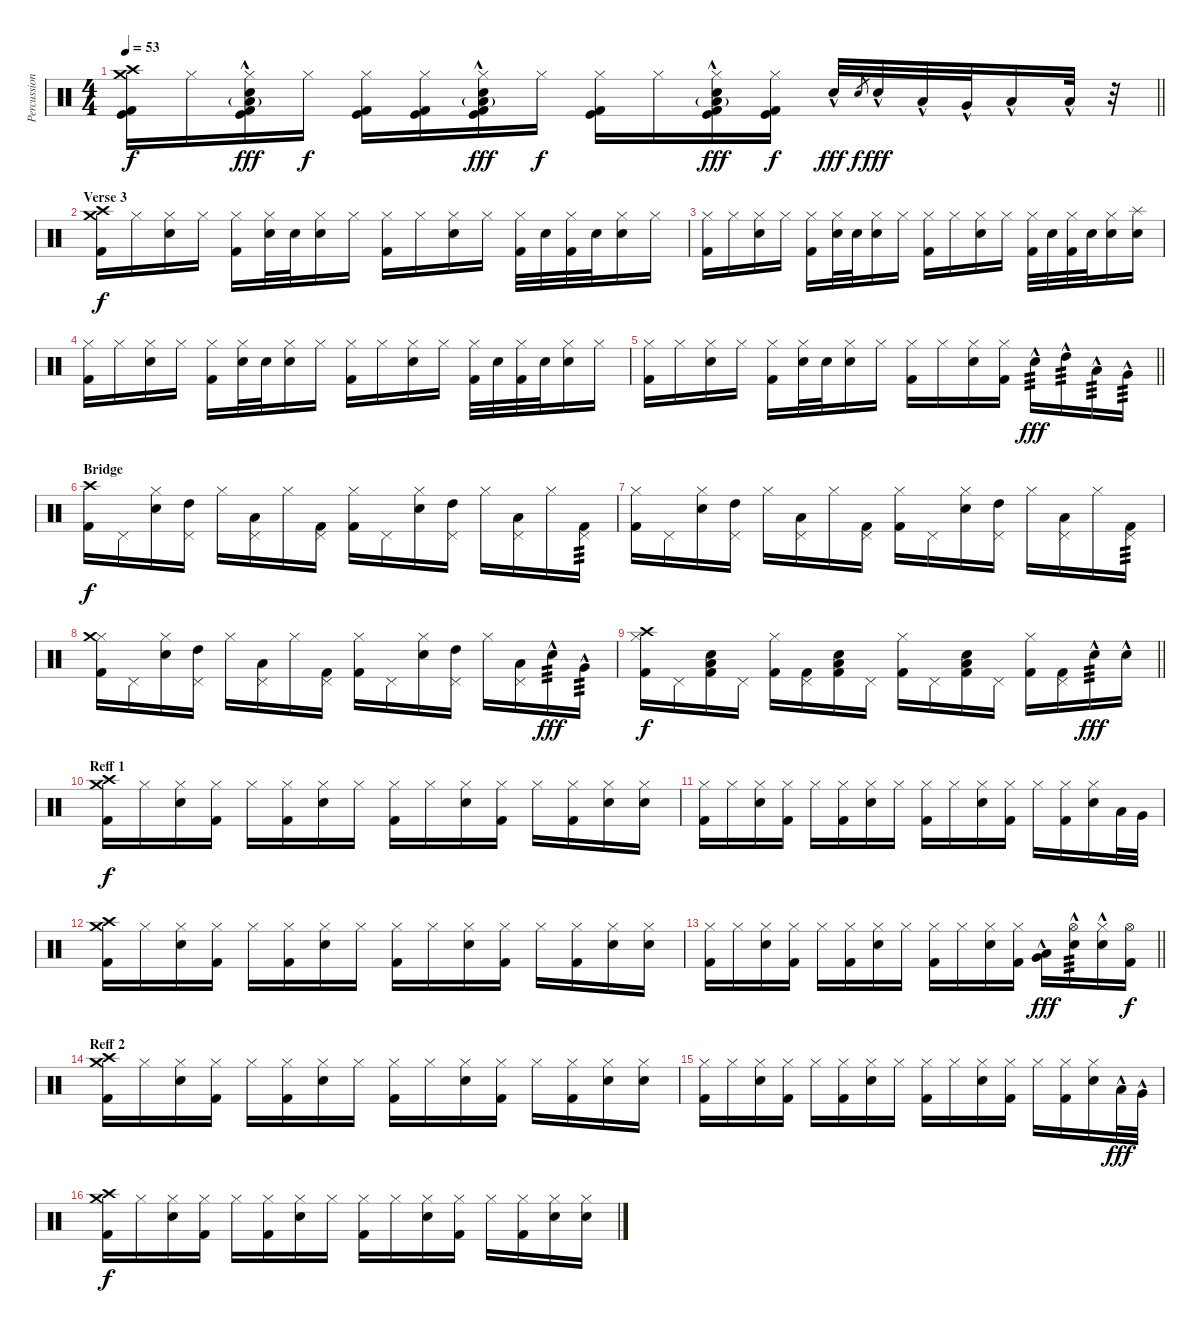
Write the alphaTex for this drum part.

\track ("Percussion" "Percussion") {instrument percussion}
\staff {score}
\articulation defaults
\ts (4 4)
\tempo 53
\clef neutral
\barLineRight lightlight
\ks c
("Crash medium (hit)" "Crash high (hit)" "Kick (hit)" "Kick (hit) 2").16{dy f} "Hi-Hat (closed)".16 ("Hi-Hat (closed)" "Electric Snare (hit)"{hac} "Low Floor Tom (hit)"{g} "Kick (hit)" "Kick (hit) 2"{hac}).16{dy fff} "Hi-Hat (closed)".16{dy f} ("Hi-Hat (closed)" "Kick (hit)" "Kick (hit) 2").16 ("Hi-Hat (closed)" "Kick (hit)" "Kick (hit) 2").16 ("Hi-Hat (closed)" "Electric Snare (hit)"{hac} "Low Floor Tom (hit)"{g} "Kick (hit)" "Kick (hit) 2"{hac}).16{dy fff} "Hi-Hat (closed)".16{dy f} ("Hi-Hat (closed)" "Kick (hit)" "Kick (hit) 2").16 "Hi-Hat (closed)".16 ("Hi-Hat (closed)" "Electric Snare (hit)"{hac} "Low Floor Tom (hit)"{g} "Kick (hit)" "Kick (hit) 2"{hac}).16{dy fff} ("Hi-Hat (closed)" "Kick (hit)" "Kick (hit) 2").16{dy f} "Electric Snare (hit)"{hac}.32{dy fff} "Electric Snare (hit)".8{gr dy f} "Electric Snare (hit)"{hac}.32{bd 60 dy fff} "Low Tom (hit)"{hac}.32 "Very Low Tom (hit)"{hac}.32 "Low Floor Tom (hit)"{hac}.16 "Low Floor Tom (hit)"{hac}.32 r.32 |
\section ("" "Verse 3")
("Crash medium (hit)" "Crash high (hit)" "Kick (hit) 2").16{dy f} "Hi-Hat (closed)".16 ("Hi-Hat (closed)" "Electric Snare (hit)").16 "Hi-Hat (closed)".16 ("Hi-Hat (closed)" "Kick (hit) 2").16 ("Hi-Hat (closed)" "Electric Snare (hit)").32 "Electric Snare (hit)".32 ("Hi-Hat (closed)" "Electric Snare (hit)").16 "Hi-Hat (closed)".16 ("Hi-Hat (closed)" "Kick (hit) 2").16 "Hi-Hat (closed)".16 ("Hi-Hat (closed)" "Electric Snare (hit)").16 "Hi-Hat (closed)".16 ("Hi-Hat (closed)" "Kick (hit) 2").32 "Electric Snare (hit)".32 ("Hi-Hat (closed)" "Kick (hit) 2").32 "Electric Snare (hit)".32 ("Hi-Hat (closed)" "Electric Snare (hit)").16 "Hi-Hat (closed)".16 |
("Hi-Hat (closed)" "Kick (hit) 2").16 "Hi-Hat (closed)".16 ("Hi-Hat (closed)" "Electric Snare (hit)").16 "Hi-Hat (closed)".16 ("Hi-Hat (closed)" "Kick (hit) 2").16 ("Hi-Hat (closed)" "Electric Snare (hit)").32 "Electric Snare (hit)".32 ("Hi-Hat (closed)" "Electric Snare (hit)").16 "Hi-Hat (closed)".16 ("Hi-Hat (closed)" "Kick (hit) 2").16 "Hi-Hat (closed)".16 ("Hi-Hat (closed)" "Electric Snare (hit)").16 "Hi-Hat (closed)".16 ("Hi-Hat (closed)" "Kick (hit) 2").32 "Electric Snare (hit)".32 ("Hi-Hat (closed)" "Kick (hit) 2").32 "Electric Snare (hit)".32 ("Hi-Hat (closed)" "Electric Snare (hit)").16 ("Splash (hit)" "Electric Snare (hit)").16 |
("Hi-Hat (closed)" "Kick (hit) 2").16 "Hi-Hat (closed)".16 ("Hi-Hat (closed)" "Electric Snare (hit)").16 "Hi-Hat (closed)".16 ("Hi-Hat (closed)" "Kick (hit) 2").16 ("Hi-Hat (closed)" "Electric Snare (hit)").32 "Electric Snare (hit)".32 ("Hi-Hat (closed)" "Electric Snare (hit)").16 "Hi-Hat (closed)".16 ("Hi-Hat (closed)" "Kick (hit) 2").16 "Hi-Hat (closed)".16 ("Hi-Hat (closed)" "Electric Snare (hit)").16 "Hi-Hat (closed)".16 ("Hi-Hat (closed)" "Kick (hit) 2").32 "Electric Snare (hit)".32 ("Hi-Hat (closed)" "Kick (hit) 2").32 "Electric Snare (hit)".32 ("Hi-Hat (closed)" "Electric Snare (hit)").16 "Hi-Hat (closed)".16 |
\barLineRight lightlight
("Hi-Hat (closed)" "Kick (hit) 2").16 "Hi-Hat (closed)".16 ("Hi-Hat (closed)" "Electric Snare (hit)").16 "Hi-Hat (closed)".16 ("Hi-Hat (closed)" "Kick (hit) 2").16 ("Hi-Hat (closed)" "Electric Snare (hit)").32 "Electric Snare (hit)".32 ("Hi-Hat (closed)" "Electric Snare (hit)").16 "Hi-Hat (closed)".16 ("Hi-Hat (closed)" "Kick (hit) 2").16 "Hi-Hat (closed)".16 ("Hi-Hat (closed)" "Electric Snare (hit)").16 ("Hi-Hat (closed)" "Kick (hit) 2").16 "Electric Snare (hit)"{hac}.16{tp 3 dy fff} "High Tom (hit)"{hac}.16{tp 3} "Low Tom (hit)"{hac}.16{tp 3} "Very Low Tom (hit)"{hac}.16{tp 3} |
\section ("" "Bridge")
("Crash high (hit)" "Kick (hit) 2").16{dy f} "Pedal Hi-Hat (hit)".16 ("Hi-Hat (closed)" "Electric Snare (hit)").16 ("Pedal Hi-Hat (hit)" "High Tom (hit)").16 "Hi-Hat (closed)".16 ("Pedal Hi-Hat (hit)" "Low Tom (hit)").16 "Hi-Hat (closed)".16 ("Pedal Hi-Hat (hit)" "Kick (hit) 2").16 ("Hi-Hat (closed)" "Kick (hit) 2").16 "Pedal Hi-Hat (hit)".16 ("Hi-Hat (closed)" "Electric Snare (hit)").16 ("Pedal Hi-Hat (hit)" "High Tom (hit)").16 "Hi-Hat (closed)".16 ("Pedal Hi-Hat (hit)" "Low Tom (hit)").16 "Hi-Hat (closed)".16 ("Pedal Hi-Hat (hit)" "Kick (hit) 2").16{tp 3} |
("Hi-Hat (closed)" "Kick (hit) 2").16 "Pedal Hi-Hat (hit)".16 ("Hi-Hat (closed)" "Electric Snare (hit)").16 ("Pedal Hi-Hat (hit)" "High Tom (hit)").16 "Hi-Hat (closed)".16 ("Pedal Hi-Hat (hit)" "Low Tom (hit)").16 "Hi-Hat (closed)".16 ("Pedal Hi-Hat (hit)" "Kick (hit) 2").16 ("Hi-Hat (closed)" "Kick (hit) 2").16 "Pedal Hi-Hat (hit)".16 ("Hi-Hat (closed)" "Electric Snare (hit)").16 ("Pedal Hi-Hat (hit)" "High Tom (hit)").16 "Hi-Hat (closed)".16 ("Pedal Hi-Hat (hit)" "Low Tom (hit)").16 "Hi-Hat (closed)".16 ("Pedal Hi-Hat (hit)" "Kick (hit) 2").16{tp 3} |
("Hi-Hat (closed)" "Crash medium (hit)" "Kick (hit) 2").16 "Pedal Hi-Hat (hit)".16 ("Hi-Hat (closed)" "Electric Snare (hit)").16 ("Pedal Hi-Hat (hit)" "High Tom (hit)").16 "Hi-Hat (closed)".16 ("Pedal Hi-Hat (hit)" "Low Tom (hit)").16 "Hi-Hat (closed)".16 ("Pedal Hi-Hat (hit)" "Kick (hit) 2").16 ("Hi-Hat (closed)" "Kick (hit) 2").16 "Pedal Hi-Hat (hit)".16 ("Hi-Hat (closed)" "Electric Snare (hit)").16 ("Pedal Hi-Hat (hit)" "High Tom (hit)").16 "Hi-Hat (closed)".16 ("Pedal Hi-Hat (hit)" "Low Tom (hit)").16 "Electric Snare (hit)"{hac}.16{tp 3 dy fff} "Very Low Tom (hit)"{hac}.16{tp 3} |
\barLineRight lightlight
("Hi-Hat (closed)" "Crash high (hit)" "Kick (hit) 2").16{dy f} "Pedal Hi-Hat (hit)".16 ("Electric Snare (hit)" "Low Floor Tom (hit)" "Kick (hit) 2").16 "Pedal Hi-Hat (hit)".16 ("Hi-Hat (closed)" "Kick (hit) 2").16 ("Pedal Hi-Hat (hit)" "Kick (hit) 2").16 ("Electric Snare (hit)" "Low Floor Tom (hit)" "Kick (hit) 2").16 "Pedal Hi-Hat (hit)".16 ("Hi-Hat (closed)" "Kick (hit) 2").16 "Pedal Hi-Hat (hit)".16 ("Electric Snare (hit)" "Low Floor Tom (hit)" "Kick (hit) 2").16 "Pedal Hi-Hat (hit)".16 ("Hi-Hat (closed)" "Kick (hit) 2").16 ("Pedal Hi-Hat (hit)" "Kick (hit) 2").16 "Electric Snare (hit)"{hac}.16{tp 3 dy fff} "Electric Snare (hit)"{hac}.16 |
\section ("" "Reff 1")
("Crash high (hit)" "Crash medium (hit)" "Kick (hit) 2").16{dy f} "Hi-Hat (closed)".16 ("Hi-Hat (closed)" "Electric Snare (hit)").16 ("Hi-Hat (closed)" "Kick (hit) 2").16 "Hi-Hat (closed)".16 ("Hi-Hat (closed)" "Kick (hit) 2").16 ("Hi-Hat (closed)" "Electric Snare (hit)").16 "Hi-Hat (closed)".16 ("Hi-Hat (closed)" "Kick (hit) 2").16 "Hi-Hat (closed)".16 ("Hi-Hat (closed)" "Electric Snare (hit)").16 ("Hi-Hat (closed)" "Kick (hit) 2").16 "Hi-Hat (closed)".16 ("Hi-Hat (closed)" "Kick (hit) 2").16 ("Hi-Hat (closed)" "Electric Snare (hit)").16 ("Hi-Hat (closed)" "Electric Snare (hit)").16 |
("Hi-Hat (closed)" "Kick (hit) 2").16 "Hi-Hat (closed)".16 ("Hi-Hat (closed)" "Electric Snare (hit)").16 ("Hi-Hat (closed)" "Kick (hit) 2").16 "Hi-Hat (closed)".16 ("Hi-Hat (closed)" "Kick (hit) 2").16 ("Hi-Hat (closed)" "Electric Snare (hit)").16 "Hi-Hat (closed)".16 ("Hi-Hat (closed)" "Kick (hit) 2").16 "Hi-Hat (closed)".16 ("Hi-Hat (closed)" "Electric Snare (hit)").16 ("Hi-Hat (closed)" "Kick (hit) 2").16 "Hi-Hat (closed)".16 ("Hi-Hat (closed)" "Kick (hit) 2").16 ("Hi-Hat (closed)" "Electric Snare (hit)").16 "Low Tom (hit)".32 "Very Low Tom (hit)".32 |
("Crash high (hit)" "Crash medium (hit)" "Kick (hit) 2").16 "Hi-Hat (closed)".16 ("Hi-Hat (closed)" "Electric Snare (hit)").16 ("Hi-Hat (closed)" "Kick (hit) 2").16 "Hi-Hat (closed)".16 ("Hi-Hat (closed)" "Kick (hit) 2").16 ("Hi-Hat (closed)" "Electric Snare (hit)").16 "Hi-Hat (closed)".16 ("Hi-Hat (closed)" "Kick (hit) 2").16 "Hi-Hat (closed)".16 ("Hi-Hat (closed)" "Electric Snare (hit)").16 ("Hi-Hat (closed)" "Kick (hit) 2").16 "Hi-Hat (closed)".16 ("Hi-Hat (closed)" "Kick (hit) 2").16 ("Hi-Hat (closed)" "Electric Snare (hit)").16 ("Hi-Hat (closed)" "Electric Snare (hit)").16 |
\barLineRight lightlight
("Hi-Hat (closed)" "Kick (hit) 2").16 "Hi-Hat (closed)".16 ("Hi-Hat (closed)" "Electric Snare (hit)").16 ("Hi-Hat (closed)" "Kick (hit) 2").16 "Hi-Hat (closed)".16 ("Hi-Hat (closed)" "Kick (hit) 2").16 ("Hi-Hat (closed)" "Electric Snare (hit)").16 "Hi-Hat (closed)".16 ("Hi-Hat (closed)" "Kick (hit) 2").16 "Hi-Hat (closed)".16 ("Hi-Hat (closed)" "Electric Snare (hit)").16 ("Hi-Hat (closed)" "Kick (hit) 2").16 ("Very Low Tom (hit)"{hac} "Low Tom (hit)"{hac}).16{dy fff} ("Hi-Hat (open)"{hac} "Electric Snare (hit)"{hac}).16{tp 3} ("Hi-Hat (closed)"{hac} "Electric Snare (hit)"{hac}).16 ("Hi-Hat (open)" "Kick (hit) 2").16{dy f} |
\section ("" "Reff 2")
("Crash high (hit)" "Crash medium (hit)" "Kick (hit) 2").16 "Hi-Hat (closed)".16 ("Hi-Hat (closed)" "Electric Snare (hit)").16 ("Hi-Hat (closed)" "Kick (hit) 2").16 "Hi-Hat (closed)".16 ("Hi-Hat (closed)" "Kick (hit) 2").16 ("Hi-Hat (closed)" "Electric Snare (hit)").16 "Hi-Hat (closed)".16 ("Hi-Hat (closed)" "Kick (hit) 2").16 "Hi-Hat (closed)".16 ("Hi-Hat (closed)" "Electric Snare (hit)").16 ("Hi-Hat (closed)" "Kick (hit) 2").16 "Hi-Hat (closed)".16 ("Hi-Hat (closed)" "Kick (hit) 2").16 ("Hi-Hat (closed)" "Electric Snare (hit)").16 ("Hi-Hat (closed)" "Electric Snare (hit)").16 |
("Hi-Hat (closed)" "Kick (hit) 2").16 "Hi-Hat (closed)".16 ("Hi-Hat (closed)" "Electric Snare (hit)").16 ("Hi-Hat (closed)" "Kick (hit) 2").16 "Hi-Hat (closed)".16 ("Hi-Hat (closed)" "Kick (hit) 2").16 ("Hi-Hat (closed)" "Electric Snare (hit)").16 "Hi-Hat (closed)".16 ("Hi-Hat (closed)" "Kick (hit) 2").16 "Hi-Hat (closed)".16 ("Hi-Hat (closed)" "Electric Snare (hit)").16 ("Hi-Hat (closed)" "Kick (hit) 2").16 "Hi-Hat (closed)".16 ("Hi-Hat (closed)" "Kick (hit) 2").16 ("Hi-Hat (closed)" "Electric Snare (hit)").16 "Low Tom (hit)"{hac}.32{dy fff} "Very Low Tom (hit)"{hac}.32 |
("Crash high (hit)" "Crash medium (hit)" "Kick (hit) 2").16{dy f} "Hi-Hat (closed)".16 ("Hi-Hat (closed)" "Electric Snare (hit)").16 ("Hi-Hat (closed)" "Kick (hit) 2").16 "Hi-Hat (closed)".16 ("Hi-Hat (closed)" "Kick (hit) 2").16 ("Hi-Hat (closed)" "Electric Snare (hit)").16 "Hi-Hat (closed)".16 ("Hi-Hat (closed)" "Kick (hit) 2").16 "Hi-Hat (closed)".16 ("Hi-Hat (closed)" "Electric Snare (hit)").16 ("Hi-Hat (closed)" "Kick (hit) 2").16 "Hi-Hat (closed)".16 ("Hi-Hat (closed)" "Kick (hit) 2").16 ("Hi-Hat (closed)" "Electric Snare (hit)").16 ("Hi-Hat (closed)" "Electric Snare (hit)").16
